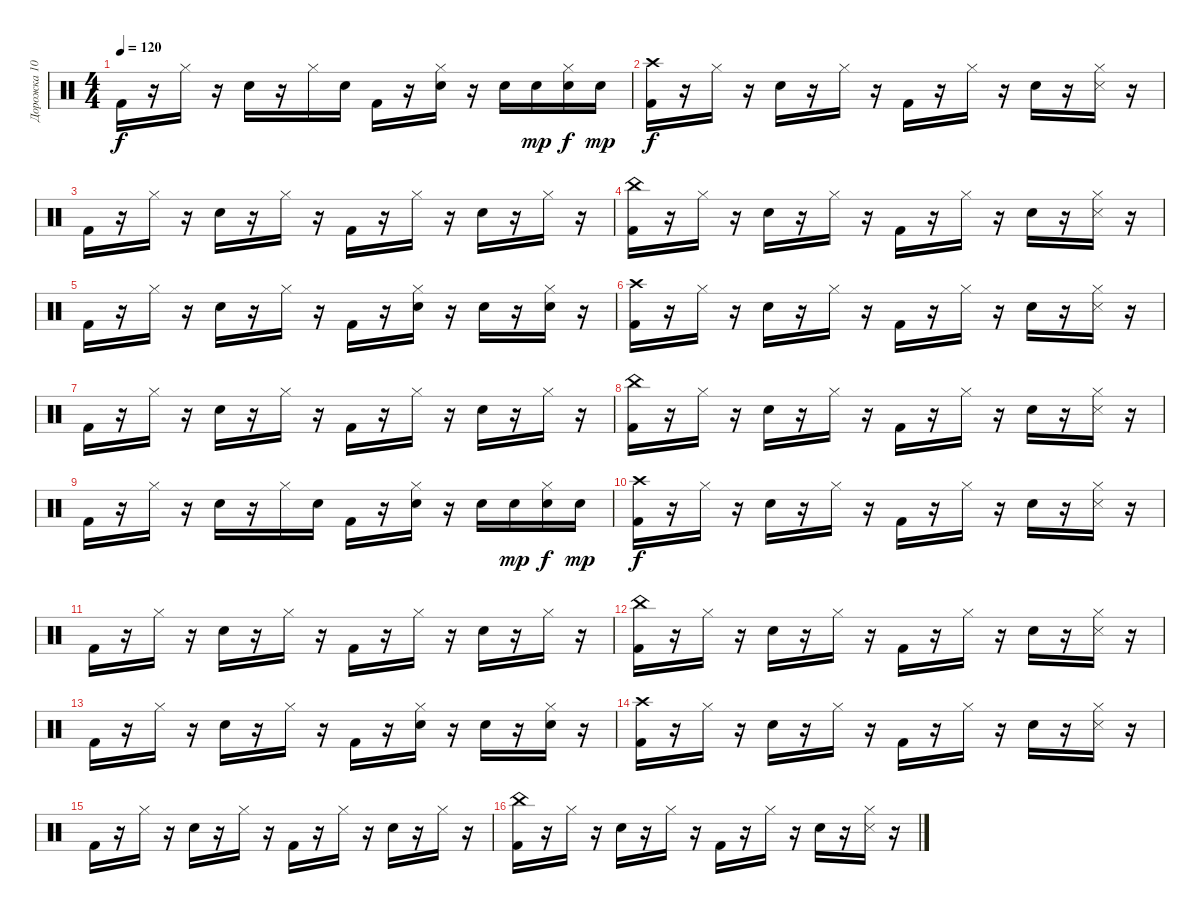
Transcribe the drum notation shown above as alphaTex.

\track ("Дорожка 10" "Дорожка 10") {instrument percussion}
\staff {score}
\articulation defaults
\ts (4 4)
\tempo 120
\clef neutral
\ks c "Kick (hit) 2".16{dy f}
r.16 "Hi-Hat (closed)".16 r.16 "Snare (hit) 2".16 r.16 "Hi-Hat (closed)".16 "Snare (hit) 2".16 "Kick (hit) 2".16 r.16 ("Snare (hit) 2" "Hi-Hat (closed)").16 r.16 "Snare (hit) 2".16 "Snare (hit) 2".16{dy mp} ("Snare (hit) 2" "Hi-Hat (closed)").16{dy f} "Snare (hit) 2".16{dy mp} |
("Kick (hit) 2" "Crash high (hit)").16{dy f} r.16 "Hi-Hat (closed)".16 r.16 "Snare (hit) 2".16 r.16 "Hi-Hat (closed)".16 r.16 "Kick (hit) 2".16 r.16 "Hi-Hat (closed)".16 r.16 "Snare (hit) 2".16 r.16 ("Snare (side stick) 3" "Hi-Hat (closed)").16 r.16 |
"Kick (hit) 2".16 r.16 "Hi-Hat (closed)".16 r.16 "Snare (hit) 2".16 r.16 "Hi-Hat (closed)".16 r.16 "Kick (hit) 2".16 r.16 "Hi-Hat (closed)".16 r.16 "Snare (hit) 2".16 r.16 "Hi-Hat (closed)".16 r.16 |
("Kick (hit) 2" "China (hit)").16 r.16 "Hi-Hat (closed)".16 r.16 "Snare (hit) 2".16 r.16 "Hi-Hat (closed)".16 r.16 "Kick (hit) 2".16 r.16 "Hi-Hat (closed)".16 r.16 "Snare (hit) 2".16 r.16 ("Snare (side stick) 3" "Hi-Hat (closed)").16 r.16 |
"Kick (hit) 2".16 r.16 "Hi-Hat (closed)".16 r.16 "Snare (hit) 2".16 r.16 "Hi-Hat (closed)".16 r.16 "Kick (hit) 2".16 r.16 ("Hand Clap (hit)" "Hi-Hat (closed)").16 r.16 "Snare (hit) 2".16 r.16 ("Hand Clap (hit)" "Hi-Hat (closed)").16 r.16 |
("Kick (hit) 2" "Crash high (hit)").16 r.16 "Hi-Hat (closed)".16 r.16 "Snare (hit) 2".16 r.16 "Hi-Hat (closed)".16 r.16 "Kick (hit) 2".16 r.16 "Hi-Hat (closed)".16 r.16 "Snare (hit) 2".16 r.16 ("Snare (side stick) 3" "Hi-Hat (closed)").16 r.16 |
"Kick (hit) 2".16 r.16 "Hi-Hat (closed)".16 r.16 "Snare (hit) 2".16 r.16 "Hi-Hat (closed)".16 r.16 "Kick (hit) 2".16 r.16 "Hi-Hat (closed)".16 r.16 "Snare (hit) 2".16 r.16 "Hi-Hat (closed)".16 r.16 |
("Kick (hit) 2" "China (hit)").16 r.16 "Hi-Hat (closed)".16 r.16 "Snare (hit) 2".16 r.16 "Hi-Hat (closed)".16 r.16 "Kick (hit) 2".16 r.16 "Hi-Hat (closed)".16 r.16 "Snare (hit) 2".16 r.16 ("Snare (side stick) 3" "Hi-Hat (closed)").16 r.16 |
"Kick (hit) 2".16 r.16 "Hi-Hat (closed)".16 r.16 "Snare (hit) 2".16 r.16 "Hi-Hat (closed)".16 "Snare (hit) 2".16 "Kick (hit) 2".16 r.16 ("Snare (hit) 2" "Hi-Hat (closed)").16 r.16 "Snare (hit) 2".16 "Snare (hit) 2".16{dy mp} ("Snare (hit) 2" "Hi-Hat (closed)").16{dy f} "Snare (hit) 2".16{dy mp} |
("Kick (hit) 2" "Crash high (hit)").16{dy f} r.16 "Hi-Hat (closed)".16 r.16 "Snare (hit) 2".16 r.16 "Hi-Hat (closed)".16 r.16 "Kick (hit) 2".16 r.16 "Hi-Hat (closed)".16 r.16 "Snare (hit) 2".16 r.16 ("Snare (side stick) 3" "Hi-Hat (closed)").16 r.16 |
"Kick (hit) 2".16 r.16 "Hi-Hat (closed)".16 r.16 "Snare (hit) 2".16 r.16 "Hi-Hat (closed)".16 r.16 "Kick (hit) 2".16 r.16 "Hi-Hat (closed)".16 r.16 "Snare (hit) 2".16 r.16 "Hi-Hat (closed)".16 r.16 |
("Kick (hit) 2" "China (hit)").16 r.16 "Hi-Hat (closed)".16 r.16 "Snare (hit) 2".16 r.16 "Hi-Hat (closed)".16 r.16 "Kick (hit) 2".16 r.16 "Hi-Hat (closed)".16 r.16 "Snare (hit) 2".16 r.16 ("Snare (side stick) 3" "Hi-Hat (closed)").16 r.16 |
"Kick (hit) 2".16 r.16 "Hi-Hat (closed)".16 r.16 "Snare (hit) 2".16 r.16 "Hi-Hat (closed)".16 r.16 "Kick (hit) 2".16 r.16 ("Hand Clap (hit)" "Hi-Hat (closed)").16 r.16 "Snare (hit) 2".16 r.16 ("Hand Clap (hit)" "Hi-Hat (closed)").16 r.16 |
("Kick (hit) 2" "Crash high (hit)").16 r.16 "Hi-Hat (closed)".16 r.16 "Snare (hit) 2".16 r.16 "Hi-Hat (closed)".16 r.16 "Kick (hit) 2".16 r.16 "Hi-Hat (closed)".16 r.16 "Snare (hit) 2".16 r.16 ("Snare (side stick) 3" "Hi-Hat (closed)").16 r.16 |
"Kick (hit) 2".16 r.16 "Hi-Hat (closed)".16 r.16 "Snare (hit) 2".16 r.16 "Hi-Hat (closed)".16 r.16 "Kick (hit) 2".16 r.16 "Hi-Hat (closed)".16 r.16 "Snare (hit) 2".16 r.16 "Hi-Hat (closed)".16 r.16 |
("Kick (hit) 2" "China (hit)").16 r.16 "Hi-Hat (closed)".16 r.16 "Snare (hit) 2".16 r.16 "Hi-Hat (closed)".16 r.16 "Kick (hit) 2".16 r.16 "Hi-Hat (closed)".16 r.16 "Snare (hit) 2".16 r.16 ("Snare (side stick) 3" "Hi-Hat (closed)").16 r.16
